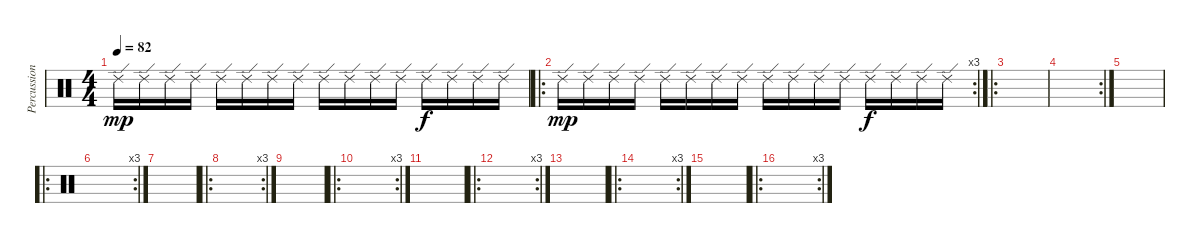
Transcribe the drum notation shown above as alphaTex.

\track ("Percussions" "Percussion") {instrument percussion}
\staff {score}
\articulation defaults
\ts (4 4)
\tempo 82
\clef neutral
\ks c "Ride (edge) 2".16{dy mp} "Ride (edge) 2".16 "Ride (edge) 2".16 "Ride (edge) 2".16 "Ride (edge) 2".16 "Ride (edge) 2".16 "Ride (edge) 2".16 "Ride (edge) 2".16 "Ride (edge) 2".16 "Ride (edge) 2".16 "Ride (edge) 2".16 "Ride (edge) 2".16 "Ride (edge) 2".16{dy f} "Ride (edge) 2".16 "Ride (edge) 2".16 "Ride (edge) 2".16
|
\ro
\rc 3 "Ride (edge) 2".16{dy mp} "Ride (edge) 2".16 "Ride (edge) 2".16 "Ride (edge) 2".16 "Ride (edge) 2".16 "Ride (edge) 2".16 "Ride (edge) 2".16 "Ride (edge) 2".16 "Ride (edge) 2".16 "Ride (edge) 2".16 "Ride (edge) 2".16 "Ride (edge) 2".16 "Ride (edge) 2".16{dy f} "Ride (edge) 2".16 "Ride (edge) 2".16 "Ride (edge) 2".16
|
\ro
|
\rc 2
|
|
\ro
\rc 3
|
|
\ro
\rc 3
|
|
\ro
\rc 3
|
|
\ro
\rc 3
|
|
\ro
\rc 3
|
|
\ro
\rc 3
